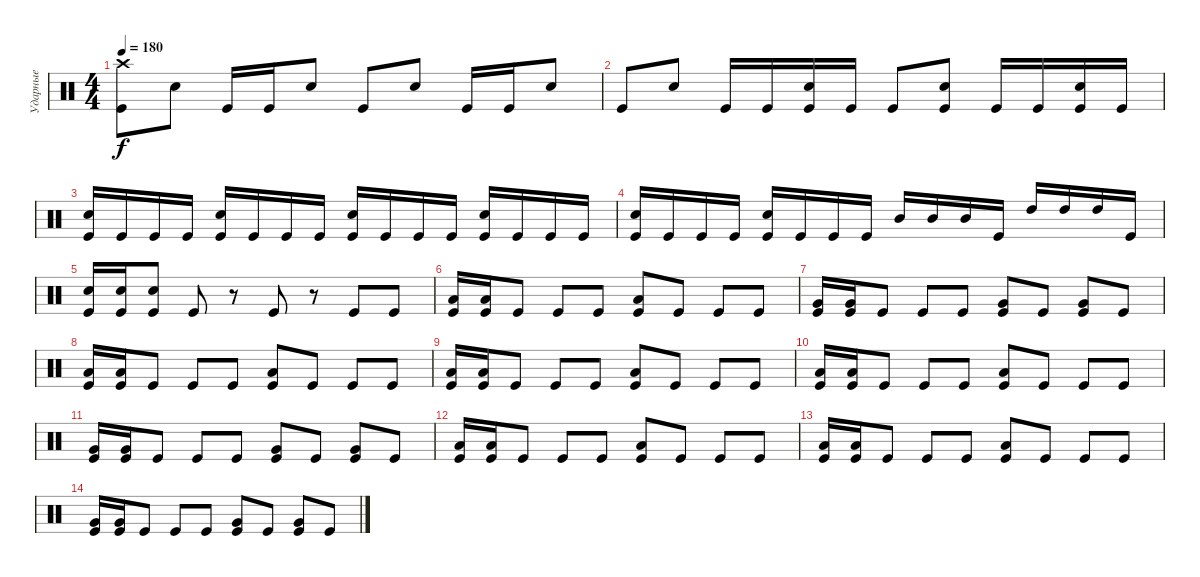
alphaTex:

\track ("Ударные" "Ударные") {instrument percussion}
\staff {score}
\articulation defaults
\ts (4 4)
\tempo 180
\clef neutral
\ks c
("Crash high (hit)" "Kick (hit)").8{dy f} "Electric Snare (hit)".8 "Kick (hit)".16 "Kick (hit)".16 "Electric Snare (hit)".8 "Kick (hit)".8 "Electric Snare (hit)".8 "Kick (hit)".16 "Kick (hit)".16 "Electric Snare (hit)".8 |
"Kick (hit)".8 "Electric Snare (hit)".8 "Kick (hit)".16 "Kick (hit)".16 ("Electric Snare (hit)" "Kick (hit)").16 "Kick (hit)".16 "Kick (hit)".8 ("Electric Snare (hit)" "Kick (hit)").8 "Kick (hit)".16 "Kick (hit)".16 ("Electric Snare (hit)" "Kick (hit)").16 "Kick (hit)".16 |
("Electric Snare (hit)" "Kick (hit)").16 "Kick (hit)".16 "Kick (hit)".16 "Kick (hit)".16 ("Electric Snare (hit)" "Kick (hit)").16 "Kick (hit)".16 "Kick (hit)".16 "Kick (hit)".16 ("Electric Snare (hit)" "Kick (hit)").16 "Kick (hit)".16 "Kick (hit)".16 "Kick (hit)".16 ("Electric Snare (hit)" "Kick (hit)").16 "Kick (hit)".16 "Kick (hit)".16 "Kick (hit)".16 |
("Electric Snare (hit)" "Kick (hit)").16 "Kick (hit)".16 "Kick (hit)".16 "Kick (hit)".16 ("Electric Snare (hit)" "Kick (hit)").16 "Kick (hit)".16 "Kick (hit)".16 "Kick (hit)".16 "Mid Tom (hit)".16 "Mid Tom (hit)".16 "Mid Tom (hit)".16 "Kick (hit)".16 "High Tom (hit)".16 "High Tom (hit)".16 "High Tom (hit)".16 "Kick (hit)".16 |
("Electric Snare (hit)" "Kick (hit)").16 ("Electric Snare (hit)" "Kick (hit)").16 ("Electric Snare (hit)" "Kick (hit)").8 "Kick (hit)".8 r.8 "Kick (hit)".8 r.8 "Kick (hit)".8 "Kick (hit)".8 |
("Low Tom (hit)" "Kick (hit)").16 ("Low Tom (hit)" "Kick (hit)").16 "Kick (hit)".8 "Kick (hit)".8 "Kick (hit)".8 ("Low Tom (hit)" "Kick (hit)").8 "Kick (hit)".8 "Kick (hit)".8 "Kick (hit)".8 |
("Very Low Tom (hit)" "Kick (hit)").16 ("Very Low Tom (hit)" "Kick (hit)").16 "Kick (hit)".8 "Kick (hit)".8 "Kick (hit)".8 ("Very Low Tom (hit)" "Kick (hit)").8 "Kick (hit)".8 ("Very Low Tom (hit)" "Kick (hit)").8 "Kick (hit)".8 |
("Low Tom (hit)" "Kick (hit)").16 ("Low Tom (hit)" "Kick (hit)").16 "Kick (hit)".8 "Kick (hit)".8 "Kick (hit)".8 ("Low Tom (hit)" "Kick (hit)").8 "Kick (hit)".8 "Kick (hit)".8 "Kick (hit)".8 |
("Low Tom (hit)" "Kick (hit)").16 ("Low Tom (hit)" "Kick (hit)").16 "Kick (hit)".8 "Kick (hit)".8 "Kick (hit)".8 ("Low Tom (hit)" "Kick (hit)").8 "Kick (hit)".8 "Kick (hit)".8 "Kick (hit)".8 |
("Low Tom (hit)" "Kick (hit)").16 ("Low Tom (hit)" "Kick (hit)").16 "Kick (hit)".8 "Kick (hit)".8 "Kick (hit)".8 ("Low Tom (hit)" "Kick (hit)").8 "Kick (hit)".8 "Kick (hit)".8 "Kick (hit)".8 |
("Very Low Tom (hit)" "Kick (hit)").16 ("Very Low Tom (hit)" "Kick (hit)").16 "Kick (hit)".8 "Kick (hit)".8 "Kick (hit)".8 ("Very Low Tom (hit)" "Kick (hit)").8 "Kick (hit)".8 ("Very Low Tom (hit)" "Kick (hit)").8 "Kick (hit)".8 |
("Low Tom (hit)" "Kick (hit)").16 ("Low Tom (hit)" "Kick (hit)").16 "Kick (hit)".8 "Kick (hit)".8 "Kick (hit)".8 ("Low Tom (hit)" "Kick (hit)").8 "Kick (hit)".8 "Kick (hit)".8 "Kick (hit)".8 |
("Low Tom (hit)" "Kick (hit)").16 ("Low Tom (hit)" "Kick (hit)").16 "Kick (hit)".8 "Kick (hit)".8 "Kick (hit)".8 ("Low Tom (hit)" "Kick (hit)").8 "Kick (hit)".8 "Kick (hit)".8 "Kick (hit)".8 |
("Very Low Tom (hit)" "Kick (hit)").16 ("Very Low Tom (hit)" "Kick (hit)").16 "Kick (hit)".8 "Kick (hit)".8 "Kick (hit)".8 ("Very Low Tom (hit)" "Kick (hit)").8 "Kick (hit)".8 ("Very Low Tom (hit)" "Kick (hit)").8 "Kick (hit)".8
